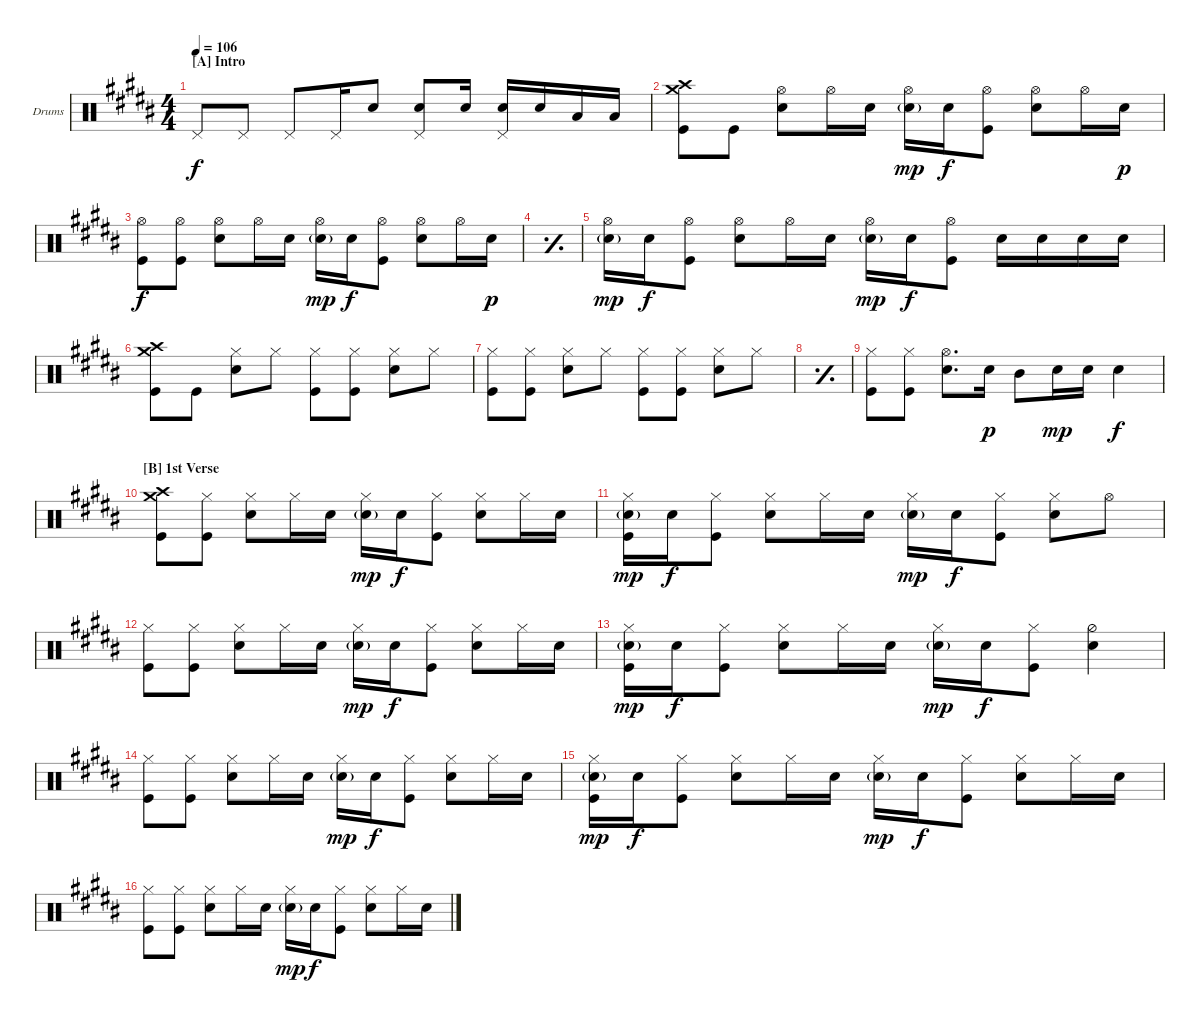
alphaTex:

\defaultSystemsLayout 4
\bracketExtendMode groupsimilarinstruments
\firstSystemTrackNameOrientation horizontal
\otherSystemsTrackNameOrientation horizontal
\track ("Dominic Boyce (Drums)" "Drums") {multiBarRest instrument percussion}
\staff {score}
\articulation defaults
\ts (4 4)
\section ("A" "Intro")
\tempo 106
\clef neutral
\ks b "Pedal Hi-Hat (hit)".8{dy f} "Pedal Hi-Hat (hit)".8 "Pedal Hi-Hat (hit)".8 "Pedal Hi-Hat (hit)".16 "Snare (hit) 2".8
("Snare (hit) 2" "Pedal Hi-Hat (hit)").8 "Snare (hit) 2".16 ("Snare (hit) 2" "Pedal Hi-Hat (hit)").16 "Snare (hit) 2".16 "Low Tom (hit)".16 "Low Tom (hit)".16 |
("Kick (hit)" "Crash high (hit)" "Crash medium (hit)").8 "Kick (hit)".8 ("Snare (hit) 2" "Hi-Hat (open)").8 "Hi-Hat (open)".16 "Snare (hit) 2".16 ("Snare (hit) 2"{g} "Hi-Hat (open)").16{dy mp} "Snare (hit) 2".16{dy f} ("Kick (hit)" "Hi-Hat (open)").8 ("Snare (hit) 2" "Hi-Hat (open)").8 "Hi-Hat (open)".16 "Snare (hit) 2".16{dy p} |
("Kick (hit)" "Hi-Hat (open)").8{dy f} ("Kick (hit)" "Hi-Hat (open)").8 ("Snare (hit) 2" "Hi-Hat (open)").8 "Hi-Hat (open)".16 "Snare (hit) 2".16 ("Snare (hit) 2"{g} "Hi-Hat (open)").16{dy mp} "Snare (hit) 2".16{dy f} ("Hi-Hat (open)" "Kick (hit)").8 ("Snare (hit) 2" "Hi-Hat (open)").8 "Hi-Hat (open)".16 "Snare (hit) 2".16{dy p} |
\simile simple
|
\simile none
("Snare (hit) 2"{g} "Hi-Hat (open)").16{dy mp} "Snare (hit) 2".16{dy f} ("Kick (hit)" "Hi-Hat (open)").8 ("Snare (hit) 2" "Hi-Hat (open)").8 "Hi-Hat (open)".16 "Snare (hit) 2".16 ("Snare (hit) 2"{g} "Hi-Hat (open)").16{dy mp} "Snare (hit) 2".16{dy f} ("Hi-Hat (open)" "Kick (hit)").8 "Snare (hit) 2".16 "Snare (hit) 2".16 "Snare (hit) 2".16 "Snare (hit) 2".16 |
("Kick (hit)" "Crash medium (hit)" "Crash high (hit)").8 "Kick (hit)".8 ("Snare (hit) 2" "Hi-Hat (closed)").8 "Hi-Hat (closed)".8 ("Kick (hit)" "Hi-Hat (closed)").8 ("Kick (hit)" "Hi-Hat (closed)").8 ("Hi-Hat (closed)" "Snare (hit) 2").8 "Hi-Hat (closed)".8 |
("Kick (hit)" "Hi-Hat (closed)").8 ("Kick (hit)" "Hi-Hat (closed)").8 ("Hi-Hat (closed)" "Snare (hit) 2").8 "Hi-Hat (closed)".8 ("Kick (hit)" "Hi-Hat (closed)").8 ("Kick (hit)" "Hi-Hat (closed)").8 ("Hi-Hat (closed)" "Snare (hit) 2").8 "Hi-Hat (closed)".8 |
\simile simple
|
\simile none
("Kick (hit)" "Hi-Hat (closed)").8 ("Kick (hit)" "Hi-Hat (closed)").8 ("Hi-Hat (open)" "Snare (hit) 2").8{d} "Snare (hit) 2".16{dy p} "Mid Tom (hit)".8 "Snare (hit) 2".16{dy mp} "Snare (hit) 2".16 "Snare (hit) 2".4{dy f} |
\section ("B" "1st Verse")
("Kick (hit)" "Crash high (hit)" "Crash medium (hit)").8 ("Kick (hit)" "Hi-Hat (closed)").8 ("Snare (hit) 2" "Hi-Hat (closed)").8 "Hi-Hat (closed)".16 "Snare (hit) 2".16 ("Snare (hit) 2"{g} "Hi-Hat (closed)").16{dy mp} "Snare (hit) 2".16{dy f} ("Kick (hit)" "Hi-Hat (closed)").8 ("Snare (hit) 2" "Hi-Hat (closed)").8 "Hi-Hat (closed)".16 "Snare (hit) 2".16 |
("Snare (hit) 2"{g} "Hi-Hat (closed)" "Kick (hit)").16{dy mp} "Snare (hit) 2".16{dy f} ("Kick (hit)" "Hi-Hat (closed)").8 ("Snare (hit) 2" "Hi-Hat (closed)").8 "Hi-Hat (closed)".16 "Snare (hit) 2".16 ("Snare (hit) 2"{g} "Hi-Hat (closed)").16{dy mp} "Snare (hit) 2".16{dy f} ("Kick (hit)" "Hi-Hat (closed)").8 ("Snare (hit) 2" "Hi-Hat (closed)").8 "Hi-Hat (open)".8 |
("Kick (hit)" "Hi-Hat (closed)").8 ("Kick (hit)" "Hi-Hat (closed)").8 ("Snare (hit) 2" "Hi-Hat (closed)").8 "Hi-Hat (closed)".16 "Snare (hit) 2".16 ("Snare (hit) 2"{g} "Hi-Hat (closed)").16{dy mp} "Snare (hit) 2".16{dy f} ("Kick (hit)" "Hi-Hat (closed)").8 ("Snare (hit) 2" "Hi-Hat (closed)").8 "Hi-Hat (closed)".16 "Snare (hit) 2".16 |
("Snare (hit) 2"{g} "Hi-Hat (closed)" "Kick (hit)").16{dy mp} "Snare (hit) 2".16{dy f} ("Kick (hit)" "Hi-Hat (closed)").8 ("Snare (hit) 2" "Hi-Hat (closed)").8 "Hi-Hat (closed)".16 "Snare (hit) 2".16 ("Snare (hit) 2"{g} "Hi-Hat (closed)").16{dy mp} "Snare (hit) 2".16{dy f} ("Kick (hit)" "Hi-Hat (closed)").8 ("Snare (hit) 2" "Hi-Hat (half)").4 |
("Kick (hit)" "Hi-Hat (closed)").8 ("Kick (hit)" "Hi-Hat (closed)").8 ("Snare (hit) 2" "Hi-Hat (closed)").8 "Hi-Hat (closed)".16 "Snare (hit) 2".16 ("Snare (hit) 2"{g} "Hi-Hat (closed)").16{dy mp} "Snare (hit) 2".16{dy f} ("Kick (hit)" "Hi-Hat (closed)").8 ("Snare (hit) 2" "Hi-Hat (closed)").8 "Hi-Hat (closed)".16 "Snare (hit) 2".16 |
("Snare (hit) 2"{g} "Hi-Hat (closed)" "Kick (hit)").16{dy mp} "Snare (hit) 2".16{dy f} ("Kick (hit)" "Hi-Hat (closed)").8 ("Snare (hit) 2" "Hi-Hat (closed)").8 "Hi-Hat (closed)".16 "Snare (hit) 2".16 ("Snare (hit) 2"{g} "Hi-Hat (closed)").16{dy mp} "Snare (hit) 2".16{dy f} ("Kick (hit)" "Hi-Hat (closed)").8 ("Snare (hit) 2" "Hi-Hat (closed)").8 "Hi-Hat (closed)".16 "Snare (hit) 2".16 |
("Kick (hit)" "Hi-Hat (closed)").8 ("Kick (hit)" "Hi-Hat (closed)").8 ("Snare (hit) 2" "Hi-Hat (closed)").8 "Hi-Hat (closed)".16 "Snare (hit) 2".16 ("Snare (hit) 2"{g} "Hi-Hat (closed)").16{dy mp} "Snare (hit) 2".16{dy f} ("Kick (hit)" "Hi-Hat (closed)").8 ("Snare (hit) 2" "Hi-Hat (closed)").8 "Hi-Hat (closed)".16 "Snare (hit) 2".16
